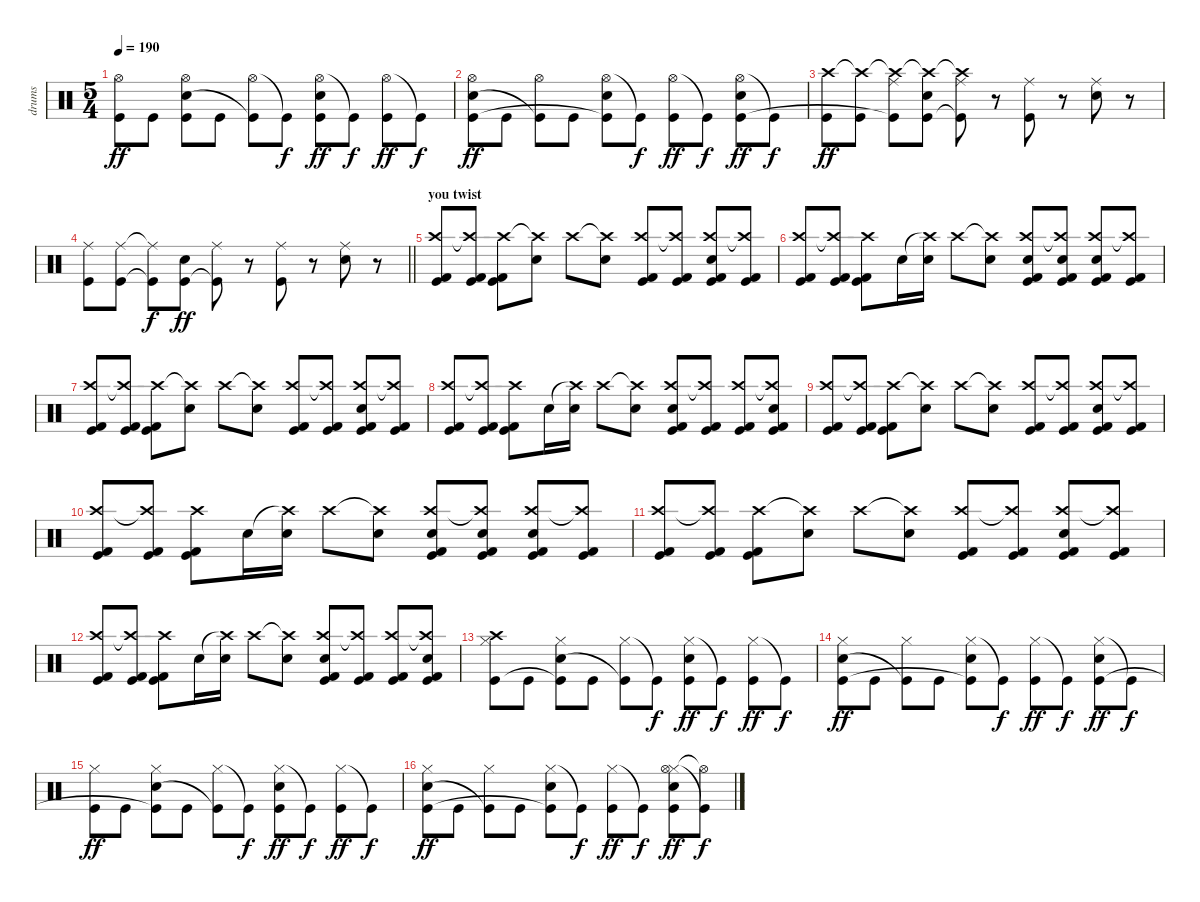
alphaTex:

\track ("drums" "drums") {instrument percussion}
\staff {score}
\articulation defaults
\ts (5 4)
\tempo 190
\clef neutral
\ks c
("Hi-Hat (open)" "Kick (hit)").8{dy ff} "Kick (hit)".8 ("Hi-Hat (open)" "Electric Snare (hit)" "Kick (hit)"{t}).8 "Kick (hit)".8 ("Hi-Hat (open)" "Kick (hit)"{t}).8 "Kick (hit)"{t}.8{dy f} ("Hi-Hat (open)" "Electric Snare (hit)" "Kick (hit)").8{dy ff} "Kick (hit)"{t}.8{dy f} ("Hi-Hat (open)" "Kick (hit)").8{dy ff} "Kick (hit)"{t}.8{dy f} |
("Hi-Hat (open)" "Electric Snare (hit)" "Kick (hit)").8{dy ff} "Kick (hit)".8 ("Hi-Hat (open)" "Kick (hit)"{t}).8 "Kick (hit)".8 ("Hi-Hat (open)" "Electric Snare (hit)" "Kick (hit)"{t}).8 "Kick (hit)"{t}.8{dy f} ("Hi-Hat (open)" "Kick (hit)").8{dy ff} "Kick (hit)"{t}.8{dy f} ("Hi-Hat (open)" "Electric Snare (hit)" "Kick (hit)").8{dy ff} "Kick (hit)"{t}.8{dy f} |
("Crash high (hit)" "Kick (hit)").8{dy ff} ("Crash high (hit)"{t} "Kick (hit)").8 ("Crash high (hit)"{t} "Ride (middle)" "Kick (hit)"{t}).8 ("Crash high (hit)"{t} "Electric Snare (hit)" "Kick (hit)").8 ("Crash high (hit)"{t} "Ride (middle)" "Kick (hit)"{t}).8 r.8 ("Ride (middle)" "Kick (hit)").8 r.8 ("Ride (middle)" "Electric Snare (hit)").8 r.8 |
\barLineRight lightlight
("Ride (middle)" "Kick (hit)").8 ("Ride (middle)" "Kick (hit)").8 ("Ride (middle)"{t} "Kick (hit)"{t}).8{dy f} ("Electric Snare (hit)" "Kick (hit)").8{dy ff} ("Ride (middle)" "Kick (hit)"{t}).8 r.8 ("Ride (middle)" "Kick (hit)").8 r.8 ("Ride (middle)" "Electric Snare (hit)").8 r.8 |
\section ("" "you twist")
("Crash high (hit)" "Kick (hit) 2" "Kick (hit)").8 ("Crash high (hit)"{t} "Kick (hit) 2" "Kick (hit)").8 ("Crash high (hit)" "Kick (hit) 2" "Kick (hit)").8 ("Crash high (hit)"{t} "Electric Snare (hit)").8 "Crash high (hit)".8 ("Crash high (hit)"{t} "Electric Snare (hit)").8 ("Crash high (hit)" "Kick (hit) 2" "Kick (hit)").8 ("Crash high (hit)"{t} "Kick (hit) 2" "Kick (hit)").8 ("Crash high (hit)" "Electric Snare (hit)" "Kick (hit) 2" "Kick (hit)").8 ("Crash high (hit)"{t} "Kick (hit) 2" "Kick (hit)").8 |
("Crash high (hit)" "Kick (hit) 2" "Kick (hit)").8 ("Crash high (hit)"{t} "Kick (hit) 2" "Kick (hit)").8 ("Crash high (hit)" "Kick (hit) 2" "Kick (hit)").8 "Electric Snare (hit)".16 ("Crash high (hit)"{t} "Electric Snare (hit)").16 "Crash high (hit)".8 ("Crash high (hit)"{t} "Electric Snare (hit)").8 ("Crash high (hit)" "Electric Snare (hit)" "Kick (hit) 2" "Kick (hit)").8 ("Crash high (hit)"{t} "Electric Snare (hit)" "Kick (hit) 2" "Kick (hit)").8 ("Crash high (hit)" "Electric Snare (hit)" "Kick (hit) 2" "Kick (hit)").8 ("Crash high (hit)"{t} "Kick (hit) 2" "Kick (hit)").8 |
("Crash high (hit)" "Kick (hit) 2" "Kick (hit)").8 ("Crash high (hit)"{t} "Kick (hit) 2" "Kick (hit)").8 ("Crash high (hit)" "Kick (hit) 2" "Kick (hit)").8 ("Crash high (hit)"{t} "Electric Snare (hit)").8 "Crash high (hit)".8 ("Crash high (hit)"{t} "Electric Snare (hit)").8 ("Crash high (hit)" "Kick (hit) 2" "Kick (hit)").8 ("Crash high (hit)"{t} "Kick (hit) 2" "Kick (hit)").8 ("Crash high (hit)" "Electric Snare (hit)" "Kick (hit) 2" "Kick (hit)").8 ("Crash high (hit)"{t} "Kick (hit) 2" "Kick (hit)").8 |
("Crash high (hit)" "Kick (hit) 2" "Kick (hit)").8 ("Crash high (hit)"{t} "Kick (hit) 2" "Kick (hit)").8 ("Crash high (hit)" "Kick (hit) 2" "Kick (hit)").8 "Electric Snare (hit)".16 ("Crash high (hit)"{t} "Electric Snare (hit)").16 "Crash high (hit)".8 ("Crash high (hit)"{t} "Electric Snare (hit)").8 ("Crash high (hit)" "Electric Snare (hit)" "Kick (hit) 2" "Kick (hit)").8 ("Crash high (hit)"{t} "Kick (hit) 2" "Kick (hit)").8 ("Crash high (hit)" "Kick (hit) 2" "Kick (hit)").8 ("Crash high (hit)"{t} "Electric Snare (hit)" "Kick (hit) 2" "Kick (hit)").8 |
("Crash high (hit)" "Kick (hit) 2" "Kick (hit)").8 ("Crash high (hit)"{t} "Kick (hit) 2" "Kick (hit)").8 ("Crash high (hit)" "Kick (hit) 2" "Kick (hit)").8 ("Crash high (hit)"{t} "Electric Snare (hit)").8 "Crash high (hit)".8 ("Crash high (hit)"{t} "Electric Snare (hit)").8 ("Crash high (hit)" "Kick (hit) 2" "Kick (hit)").8 ("Crash high (hit)"{t} "Kick (hit) 2" "Kick (hit)").8 ("Crash high (hit)" "Electric Snare (hit)" "Kick (hit) 2" "Kick (hit)").8 ("Crash high (hit)"{t} "Kick (hit) 2" "Kick (hit)").8 |
("Crash high (hit)" "Kick (hit) 2" "Kick (hit)").8 ("Crash high (hit)"{t} "Kick (hit) 2" "Kick (hit)").8 ("Crash high (hit)" "Kick (hit) 2" "Kick (hit)").8 "Electric Snare (hit)".16 ("Crash high (hit)"{t} "Electric Snare (hit)").16 "Crash high (hit)".8 ("Crash high (hit)"{t} "Electric Snare (hit)").8 ("Crash high (hit)" "Electric Snare (hit)" "Kick (hit) 2" "Kick (hit)").8 ("Crash high (hit)"{t} "Electric Snare (hit)" "Kick (hit) 2" "Kick (hit)").8 ("Crash high (hit)" "Electric Snare (hit)" "Kick (hit) 2" "Kick (hit)").8 ("Crash high (hit)"{t} "Kick (hit) 2" "Kick (hit)").8 |
("Crash high (hit)" "Kick (hit) 2" "Kick (hit)").8 ("Crash high (hit)"{t} "Kick (hit) 2" "Kick (hit)").8 ("Crash high (hit)" "Kick (hit) 2" "Kick (hit)").8 ("Crash high (hit)"{t} "Electric Snare (hit)").8 "Crash high (hit)".8 ("Crash high (hit)"{t} "Electric Snare (hit)").8 ("Crash high (hit)" "Kick (hit) 2" "Kick (hit)").8 ("Crash high (hit)"{t} "Kick (hit) 2" "Kick (hit)").8 ("Crash high (hit)" "Electric Snare (hit)" "Kick (hit) 2" "Kick (hit)").8 ("Crash high (hit)"{t} "Kick (hit) 2" "Kick (hit)").8 |
("Crash high (hit)" "Kick (hit) 2" "Kick (hit)").8 ("Crash high (hit)"{t} "Kick (hit) 2" "Kick (hit)").8 ("Crash high (hit)" "Kick (hit) 2" "Kick (hit)").8 "Electric Snare (hit)".16 ("Crash high (hit)"{t} "Electric Snare (hit)").16 "Crash high (hit)".8 ("Crash high (hit)"{t} "Electric Snare (hit)").8 ("Crash high (hit)" "Electric Snare (hit)" "Kick (hit) 2" "Kick (hit)").8 ("Crash high (hit)"{t} "Kick (hit) 2" "Kick (hit)").8 ("Crash high (hit)" "Kick (hit) 2" "Kick (hit)").8 ("Crash high (hit)"{t} "Electric Snare (hit)" "Kick (hit) 2" "Kick (hit)").8 |
("Crash high (hit)" "Hi-Hat (closed)" "Kick (hit)").8 "Kick (hit)".8 ("Hi-Hat (closed)" "Electric Snare (hit)" "Kick (hit)"{t}).8 "Kick (hit)".8 ("Hi-Hat (closed)" "Kick (hit)"{t}).8 "Kick (hit)"{t}.8{dy f} ("Hi-Hat (closed)" "Electric Snare (hit)" "Kick (hit)").8{dy ff} "Kick (hit)"{t}.8{dy f} ("Hi-Hat (closed)" "Kick (hit)").8{dy ff} "Kick (hit)"{t}.8{dy f} |
("Hi-Hat (closed)" "Electric Snare (hit)" "Kick (hit)").8{dy ff} "Kick (hit)".8 ("Hi-Hat (closed)" "Kick (hit)"{t}).8 "Kick (hit)".8 ("Hi-Hat (closed)" "Electric Snare (hit)" "Kick (hit)"{t}).8 "Kick (hit)"{t}.8{dy f} ("Hi-Hat (closed)" "Kick (hit)").8{dy ff} "Kick (hit)"{t}.8{dy f} ("Hi-Hat (closed)" "Electric Snare (hit)" "Kick (hit)").8{dy ff} "Kick (hit)"{t}.8{dy f} |
("Hi-Hat (closed)" "Kick (hit)").8{dy ff} "Kick (hit)".8 ("Hi-Hat (closed)" "Electric Snare (hit)" "Kick (hit)"{t}).8 "Kick (hit)".8 ("Hi-Hat (closed)" "Kick (hit)"{t}).8 "Kick (hit)"{t}.8{dy f} ("Hi-Hat (closed)" "Electric Snare (hit)" "Kick (hit)").8{dy ff} "Kick (hit)"{t}.8{dy f} ("Hi-Hat (closed)" "Kick (hit)").8{dy ff} "Kick (hit)"{t}.8{dy f} |
("Hi-Hat (closed)" "Electric Snare (hit)" "Kick (hit)").8{dy ff} "Kick (hit)".8 ("Hi-Hat (closed)" "Kick (hit)"{t}).8 "Kick (hit)".8 ("Hi-Hat (closed)" "Electric Snare (hit)" "Kick (hit)"{t}).8 "Kick (hit)"{t}.8{dy f} ("Hi-Hat (closed)" "Kick (hit)").8{dy ff} "Kick (hit)"{t}.8{dy f} ("Hi-Hat (closed)" "Hi-Hat (open)" "Electric Snare (hit)" "Kick (hit)").8{dy ff} ("Hi-Hat (open)"{t} "Kick (hit)"{t}).8{dy f}
